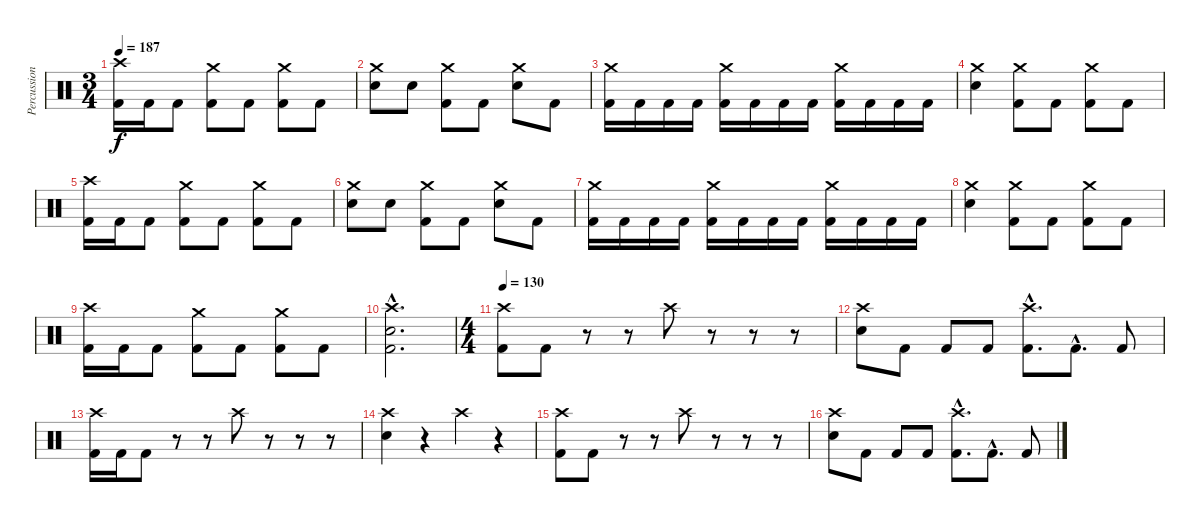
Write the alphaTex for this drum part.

\track ("Percussion" "Percussion") {instrument percussion}
\staff {score}
\articulation defaults
\ts (3 4)
\tempo 187
\clef neutral
\ks c
("Crash high (hit)" "Kick (hit) 2").16{dy f} "Kick (hit) 2".16 "Kick (hit) 2".8 ("Crash medium (hit)" "Kick (hit) 2").8 "Kick (hit) 2".8 ("Crash medium (hit)" "Kick (hit) 2").8 "Kick (hit) 2".8 |
("Crash medium (hit)" "Electric Snare (hit)").8 "Electric Snare (hit)".8 ("Crash medium (hit)" "Kick (hit) 2").8 "Kick (hit) 2".8 ("Crash medium (hit)" "Electric Snare (hit)").8 "Kick (hit) 2".8 |
("Crash medium (hit)" "Kick (hit) 2").16 "Kick (hit) 2".16 "Kick (hit) 2".16 "Kick (hit) 2".16 ("Crash medium (hit)" "Kick (hit) 2").16 "Kick (hit) 2".16 "Kick (hit) 2".16 "Kick (hit) 2".16 ("Crash medium (hit)" "Kick (hit) 2").16 "Kick (hit) 2".16 "Kick (hit) 2".16 "Kick (hit) 2".16 |
("Crash medium (hit)" "Electric Snare (hit)").4 ("Crash medium (hit)" "Kick (hit) 2").8 "Kick (hit) 2".8 ("Crash medium (hit)" "Kick (hit) 2").8 "Kick (hit) 2".8 |
("Crash high (hit)" "Kick (hit) 2").16 "Kick (hit) 2".16 "Kick (hit) 2".8 ("Crash medium (hit)" "Kick (hit) 2").8 "Kick (hit) 2".8 ("Crash medium (hit)" "Kick (hit) 2").8 "Kick (hit) 2".8 |
("Crash medium (hit)" "Electric Snare (hit)").8 "Electric Snare (hit)".8 ("Crash medium (hit)" "Kick (hit) 2").8 "Kick (hit) 2".8 ("Crash medium (hit)" "Electric Snare (hit)").8 "Kick (hit) 2".8 |
("Crash medium (hit)" "Kick (hit) 2").16 "Kick (hit) 2".16 "Kick (hit) 2".16 "Kick (hit) 2".16 ("Crash medium (hit)" "Kick (hit) 2").16 "Kick (hit) 2".16 "Kick (hit) 2".16 "Kick (hit) 2".16 ("Crash medium (hit)" "Kick (hit) 2").16 "Kick (hit) 2".16 "Kick (hit) 2".16 "Kick (hit) 2".16 |
("Crash medium (hit)" "Electric Snare (hit)").4 ("Crash medium (hit)" "Kick (hit) 2").8 "Kick (hit) 2".8 ("Crash medium (hit)" "Kick (hit) 2").8 "Kick (hit) 2".8 |
("Crash high (hit)" "Kick (hit) 2").16 "Kick (hit) 2".16 "Kick (hit) 2".8 ("Crash medium (hit)" "Kick (hit) 2").8 "Kick (hit) 2".8 ("Crash medium (hit)" "Kick (hit) 2").8 "Kick (hit) 2".8 |
("Crash high (hit)"{hac} "Electric Snare (hit)"{hac} "Kick (hit) 2"{hac}).2{d} |
\ts (4 4)
\tempo 130
("Crash high (hit)" "Kick (hit) 2").8 "Kick (hit) 2".8 r.8 r.8 "Crash high (hit)".8 r.8 r.8 r.8 |
("Crash high (hit)" "Electric Snare (hit)").8 "Kick (hit) 2".8 "Kick (hit) 2".8 "Kick (hit) 2".8 ("Crash high (hit)"{hac} "Kick (hit) 2"{hac}).8{d} "Kick (hit) 2"{hac}.8{d} "Kick (hit) 2".8 |
("Crash high (hit)" "Kick (hit) 2").16 "Kick (hit) 2".16 "Kick (hit) 2".8 r.8 r.8 "Crash high (hit)".8 r.8 r.8 r.8 |
("Crash high (hit)" "Electric Snare (hit)").4 r.4 "Crash high (hit)".4 r.4 |
("Crash high (hit)" "Kick (hit) 2").8 "Kick (hit) 2".8 r.8 r.8 "Crash high (hit)".8 r.8 r.8 r.8 |
("Crash high (hit)" "Electric Snare (hit)").8 "Kick (hit) 2".8 "Kick (hit) 2".8 "Kick (hit) 2".8 ("Crash high (hit)"{hac} "Kick (hit) 2"{hac}).8{d} "Kick (hit) 2"{hac}.8{d} "Kick (hit) 2".8
